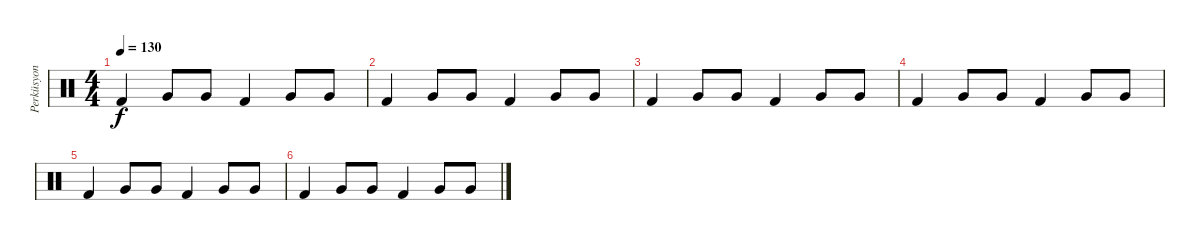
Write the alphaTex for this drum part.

\track ("Perküsyon" "Perküsyon") {instrument percussion}
\staff {score}
\articulation defaults
\ts (4 4)
\tempo 130
\clef neutral
\ks c "Kick (hit) 2".4{dy f} "Very Low Tom (hit)".8 "Very Low Tom (hit)".8 "Kick (hit) 2".4 "Very Low Tom (hit)".8 "Very Low Tom (hit)".8
|
"Kick (hit) 2".4 "Very Low Tom (hit)".8 "Very Low Tom (hit)".8 "Kick (hit) 2".4 "Very Low Tom (hit)".8 "Very Low Tom (hit)".8 |
"Kick (hit) 2".4 "Very Low Tom (hit)".8 "Very Low Tom (hit)".8 "Kick (hit) 2".4 "Very Low Tom (hit)".8 "Very Low Tom (hit)".8 |
"Kick (hit) 2".4 "Very Low Tom (hit)".8 "Very Low Tom (hit)".8 "Kick (hit) 2".4 "Very Low Tom (hit)".8 "Very Low Tom (hit)".8 |
"Kick (hit) 2".4 "Very Low Tom (hit)".8 "Very Low Tom (hit)".8 "Kick (hit) 2".4 "Very Low Tom (hit)".8 "Very Low Tom (hit)".8 |
"Kick (hit) 2".4 "Very Low Tom (hit)".8 "Very Low Tom (hit)".8 "Kick (hit) 2".4 "Very Low Tom (hit)".8 "Very Low Tom (hit)".8
